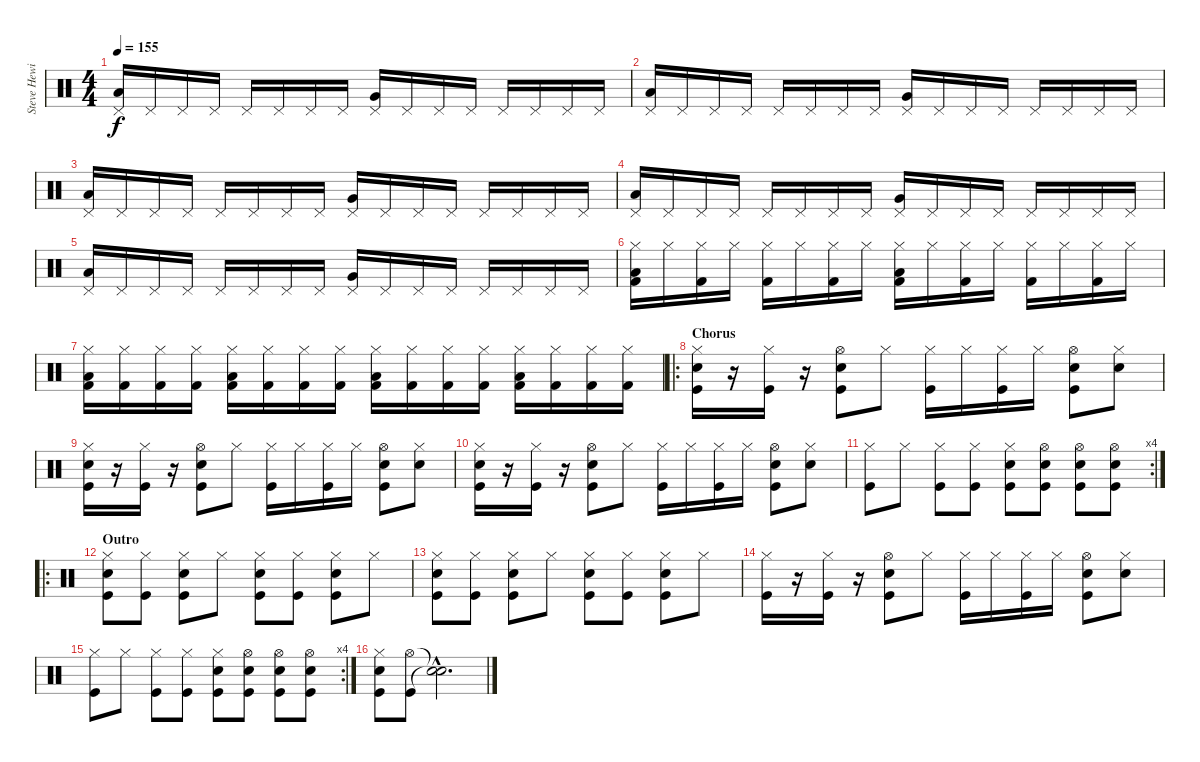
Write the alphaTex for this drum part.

\track ("Steve Hewitt" "Steve Hewi") {instrument percussion}
\staff {score}
\articulation defaults
\ts (4 4)
\tempo 155
\clef neutral
\ks c
("Pedal Hi-Hat (hit)" "Low Tom (hit)").16{dy f} "Pedal Hi-Hat (hit)".16 "Pedal Hi-Hat (hit)".16 "Pedal Hi-Hat (hit)".16 "Pedal Hi-Hat (hit)".16 "Pedal Hi-Hat (hit)".16 "Pedal Hi-Hat (hit)".16 "Pedal Hi-Hat (hit)".16 ("Pedal Hi-Hat (hit)" "Very Low Tom (hit)").16 "Pedal Hi-Hat (hit)".16 "Pedal Hi-Hat (hit)".16 "Pedal Hi-Hat (hit)".16 "Pedal Hi-Hat (hit)".16 "Pedal Hi-Hat (hit)".16 "Pedal Hi-Hat (hit)".16 "Pedal Hi-Hat (hit)".16 |
("Pedal Hi-Hat (hit)" "Low Tom (hit)").16 "Pedal Hi-Hat (hit)".16 "Pedal Hi-Hat (hit)".16 "Pedal Hi-Hat (hit)".16 "Pedal Hi-Hat (hit)".16 "Pedal Hi-Hat (hit)".16 "Pedal Hi-Hat (hit)".16 "Pedal Hi-Hat (hit)".16 ("Pedal Hi-Hat (hit)" "Very Low Tom (hit)").16 "Pedal Hi-Hat (hit)".16 "Pedal Hi-Hat (hit)".16 "Pedal Hi-Hat (hit)".16 "Pedal Hi-Hat (hit)".16 "Pedal Hi-Hat (hit)".16 "Pedal Hi-Hat (hit)".16 "Pedal Hi-Hat (hit)".16 |
("Pedal Hi-Hat (hit)" "Low Tom (hit)").16 "Pedal Hi-Hat (hit)".16 "Pedal Hi-Hat (hit)".16 "Pedal Hi-Hat (hit)".16 "Pedal Hi-Hat (hit)".16 "Pedal Hi-Hat (hit)".16 "Pedal Hi-Hat (hit)".16 "Pedal Hi-Hat (hit)".16 ("Pedal Hi-Hat (hit)" "Very Low Tom (hit)").16 "Pedal Hi-Hat (hit)".16 "Pedal Hi-Hat (hit)".16 "Pedal Hi-Hat (hit)".16 "Pedal Hi-Hat (hit)".16 "Pedal Hi-Hat (hit)".16 "Pedal Hi-Hat (hit)".16 "Pedal Hi-Hat (hit)".16 |
("Pedal Hi-Hat (hit)" "Low Tom (hit)").16 "Pedal Hi-Hat (hit)".16 "Pedal Hi-Hat (hit)".16 "Pedal Hi-Hat (hit)".16 "Pedal Hi-Hat (hit)".16 "Pedal Hi-Hat (hit)".16 "Pedal Hi-Hat (hit)".16 "Pedal Hi-Hat (hit)".16 ("Pedal Hi-Hat (hit)" "Very Low Tom (hit)").16 "Pedal Hi-Hat (hit)".16 "Pedal Hi-Hat (hit)".16 "Pedal Hi-Hat (hit)".16 "Pedal Hi-Hat (hit)".16 "Pedal Hi-Hat (hit)".16 "Pedal Hi-Hat (hit)".16 "Pedal Hi-Hat (hit)".16 |
("Pedal Hi-Hat (hit)" "Low Tom (hit)").16 "Pedal Hi-Hat (hit)".16 "Pedal Hi-Hat (hit)".16 "Pedal Hi-Hat (hit)".16 "Pedal Hi-Hat (hit)".16 "Pedal Hi-Hat (hit)".16 "Pedal Hi-Hat (hit)".16 "Pedal Hi-Hat (hit)".16 ("Pedal Hi-Hat (hit)" "Very Low Tom (hit)").16 "Pedal Hi-Hat (hit)".16 "Pedal Hi-Hat (hit)".16 "Pedal Hi-Hat (hit)".16 "Pedal Hi-Hat (hit)".16 "Pedal Hi-Hat (hit)".16 "Pedal Hi-Hat (hit)".16 "Pedal Hi-Hat (hit)".16 |
("Hi-Hat (closed)" "Kick (hit) 2" "Low Tom (hit)").16 "Hi-Hat (closed)".16 ("Hi-Hat (closed)" "Kick (hit) 2").16 "Hi-Hat (closed)".16 ("Hi-Hat (closed)" "Kick (hit) 2").16 "Hi-Hat (closed)".16 ("Hi-Hat (closed)" "Kick (hit) 2").16 "Hi-Hat (closed)".16 ("Hi-Hat (closed)" "Kick (hit) 2" "Low Tom (hit)").16 "Hi-Hat (closed)".16 ("Hi-Hat (closed)" "Kick (hit) 2").16 "Hi-Hat (closed)".16 ("Hi-Hat (closed)" "Kick (hit) 2").16 "Hi-Hat (closed)".16 ("Hi-Hat (closed)" "Kick (hit) 2").16 "Hi-Hat (closed)".16 |
("Hi-Hat (closed)" "Kick (hit) 2" "Low Tom (hit)").16 ("Hi-Hat (closed)" "Kick (hit) 2").16 ("Hi-Hat (closed)" "Kick (hit) 2").16 ("Hi-Hat (closed)" "Kick (hit) 2").16 ("Hi-Hat (closed)" "Kick (hit) 2" "Low Tom (hit)").16 ("Hi-Hat (closed)" "Kick (hit) 2").16 ("Hi-Hat (closed)" "Kick (hit) 2").16 ("Hi-Hat (closed)" "Kick (hit) 2").16 ("Hi-Hat (closed)" "Kick (hit) 2" "Low Tom (hit)").16 ("Hi-Hat (closed)" "Kick (hit) 2").16 ("Hi-Hat (closed)" "Kick (hit) 2").16 ("Hi-Hat (closed)" "Kick (hit) 2").16 ("Hi-Hat (closed)" "Kick (hit) 2" "Low Tom (hit)").16 ("Hi-Hat (closed)" "Kick (hit) 2").16 ("Hi-Hat (closed)" "Kick (hit) 2").16 ("Hi-Hat (closed)" "Kick (hit) 2").16 |
\ro
\section ("" "Chorus")
("Snare (hit) 2" "Hi-Hat (closed)" "Kick (hit)").16 r.16 ("Hi-Hat (closed)" "Kick (hit)").16 r.16 ("Snare (hit) 2" "Hi-Hat (open)" "Kick (hit)").8 "Hi-Hat (closed)".8 ("Hi-Hat (closed)" "Kick (hit)").16 "Hi-Hat (closed)".16 ("Hi-Hat (closed)" "Kick (hit)").16 "Hi-Hat (closed)".16 ("Snare (hit) 2" "Hi-Hat (open)" "Kick (hit)").8 ("Snare (hit) 2" "Hi-Hat (closed)").8 |
("Snare (hit) 2" "Hi-Hat (closed)" "Kick (hit)").16 r.16 ("Hi-Hat (closed)" "Kick (hit)").16 r.16 ("Snare (hit) 2" "Hi-Hat (open)" "Kick (hit)").8 "Hi-Hat (closed)".8 ("Hi-Hat (closed)" "Kick (hit)").16 "Hi-Hat (closed)".16 ("Hi-Hat (closed)" "Kick (hit)").16 "Hi-Hat (closed)".16 ("Snare (hit) 2" "Hi-Hat (open)" "Kick (hit)").8 ("Snare (hit) 2" "Hi-Hat (closed)").8 |
("Snare (hit) 2" "Hi-Hat (closed)" "Kick (hit)").16 r.16 ("Hi-Hat (closed)" "Kick (hit)").16 r.16 ("Snare (hit) 2" "Hi-Hat (open)" "Kick (hit)").8 "Hi-Hat (closed)".8 ("Hi-Hat (closed)" "Kick (hit)").16 "Hi-Hat (closed)".16 ("Hi-Hat (closed)" "Kick (hit)").16 "Hi-Hat (closed)".16 ("Snare (hit) 2" "Hi-Hat (open)" "Kick (hit)").8 ("Snare (hit) 2" "Hi-Hat (closed)").8 |
\rc 4
("Hi-Hat (closed)" "Kick (hit)").8 "Hi-Hat (closed)".8 ("Hi-Hat (closed)" "Kick (hit)").8 ("Hi-Hat (closed)" "Kick (hit)").8 ("Snare (hit) 2" "Hi-Hat (closed)" "Kick (hit)").8 ("Snare (hit) 2" "Hi-Hat (open)" "Kick (hit)").8 ("Snare (hit) 2" "Hi-Hat (open)" "Kick (hit)").8 ("Snare (hit) 2" "Hi-Hat (open)" "Kick (hit)").8 |
\ro
\section ("" "Outro")
("Snare (hit) 2" "Hi-Hat (closed)" "Kick (hit)").8 ("Hi-Hat (closed)" "Kick (hit)").8 ("Snare (hit) 2" "Hi-Hat (closed)" "Kick (hit)").8 "Hi-Hat (closed)".8 ("Snare (hit) 2" "Hi-Hat (closed)" "Kick (hit)").8 ("Hi-Hat (closed)" "Kick (hit)").8 ("Snare (hit) 2" "Hi-Hat (closed)" "Kick (hit)").8 "Hi-Hat (closed)".8 |
("Snare (hit) 2" "Hi-Hat (closed)" "Kick (hit)").8 ("Hi-Hat (closed)" "Kick (hit)").8 ("Snare (hit) 2" "Hi-Hat (closed)" "Kick (hit)").8 "Hi-Hat (closed)".8 ("Snare (hit) 2" "Hi-Hat (closed)" "Kick (hit)").8 ("Hi-Hat (closed)" "Kick (hit)").8 ("Snare (hit) 2" "Hi-Hat (closed)" "Kick (hit)").8 "Hi-Hat (closed)".8 |
("Hi-Hat (closed)" "Kick (hit)").16 r.16 ("Hi-Hat (closed)" "Kick (hit)").16 r.16 ("Snare (hit) 2" "Hi-Hat (open)" "Kick (hit)").8 "Hi-Hat (closed)".8 ("Hi-Hat (closed)" "Kick (hit)").16 "Hi-Hat (closed)".16 ("Hi-Hat (closed)" "Kick (hit)").16 "Hi-Hat (closed)".16 ("Snare (hit) 2" "Hi-Hat (open)" "Kick (hit)").8 ("Snare (hit) 2" "Hi-Hat (closed)").8 |
\rc 4
("Hi-Hat (closed)" "Kick (hit)").8 "Hi-Hat (closed)".8 ("Hi-Hat (closed)" "Kick (hit)").8 ("Hi-Hat (closed)" "Kick (hit)").8 ("Snare (hit) 2" "Hi-Hat (closed)" "Kick (hit)").8 ("Snare (hit) 2" "Hi-Hat (open)" "Kick (hit)").8 ("Snare (hit) 2" "Hi-Hat (open)" "Kick (hit)").8 ("Snare (hit) 2" "Hi-Hat (open)" "Kick (hit)").8 |
("Snare (hit) 2" "Hi-Hat (closed)" "Kick (hit)").8 ("Hi-Hat (open)" "Kick (hit)").8 ("Snare (hit)"{hac t} "Snare (hit)"{hac t}).2{d}
